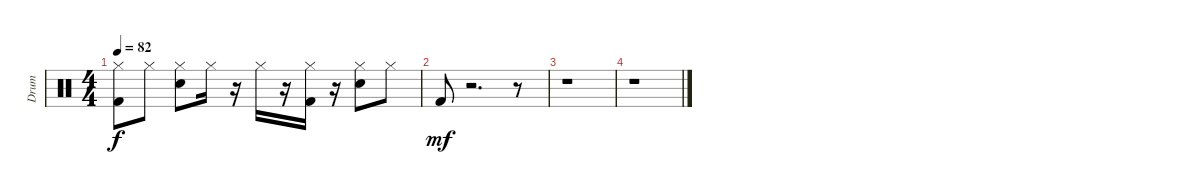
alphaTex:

\track ("Drum" "Drum") {instrument percussion}
\staff {score}
\articulation defaults
\ts (4 4)
\tempo 82
\clef neutral
\ks c
("Hi-Hat (closed)" "Kick (hit) 2").8{dy f} "Hi-Hat (closed)".8 ("Hi-Hat (closed)" "Electric Snare (hit)").8 "Hi-Hat (closed)".16 r.16 "Hi-Hat (closed)".16 r.16 ("Hi-Hat (closed)" "Kick (hit) 2").16 r.16 ("Hi-Hat (closed)" "Electric Snare (hit)").8 "Hi-Hat (closed)".8 |
"Kick (hit) 2".8{dy mf} r.2{d} r.8 |
r.1 |
r.1
